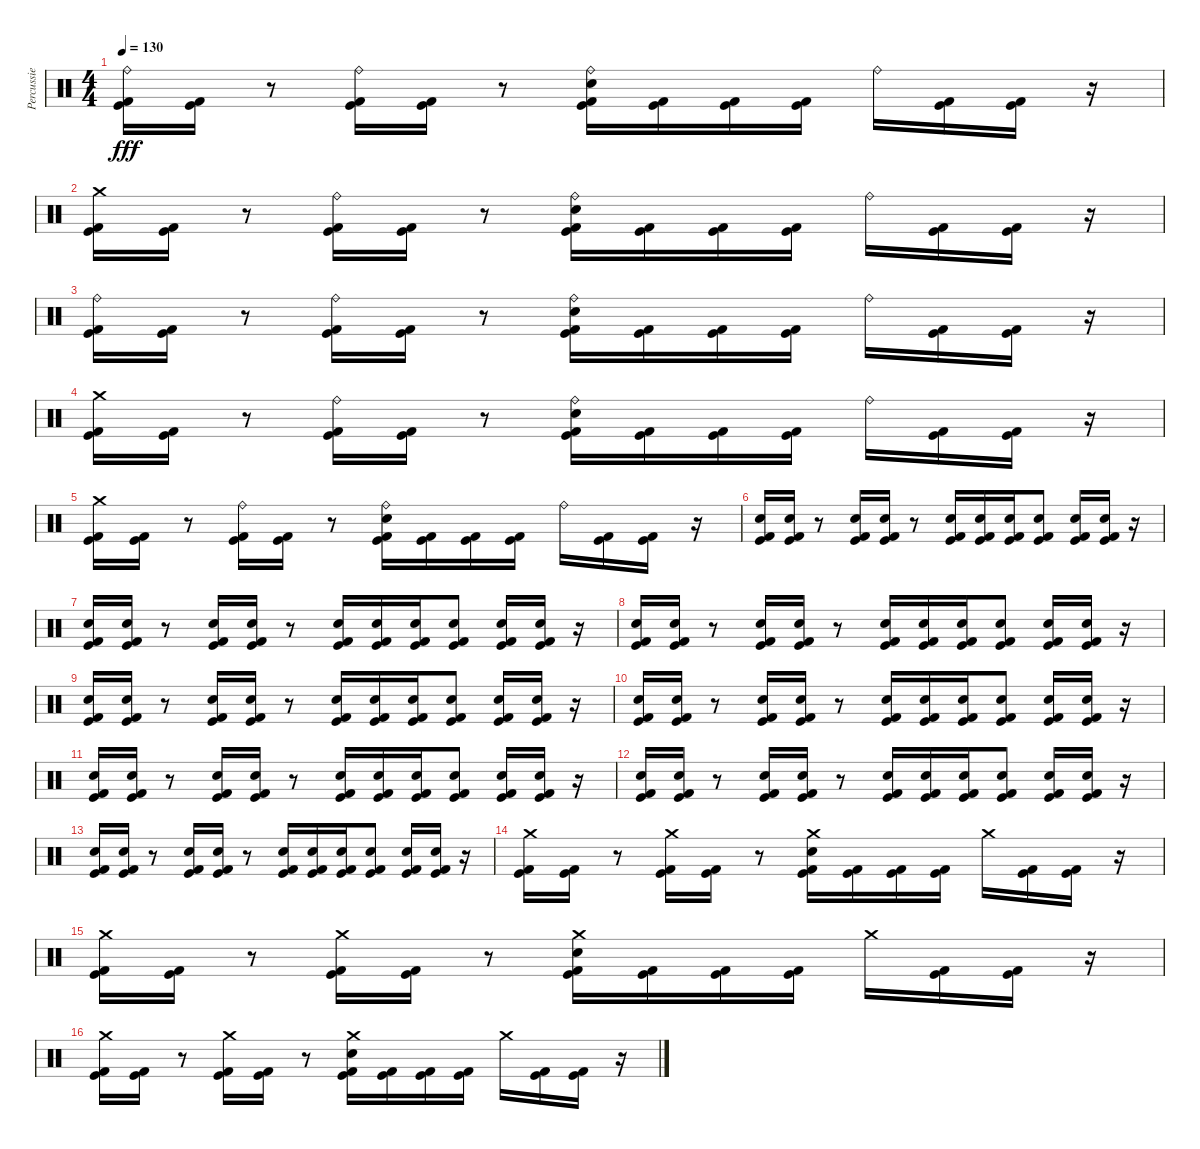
\track ("Percussie" "Percussie") {instrument percussion}
\staff {score}
\articulation defaults
\ts (4 4)
\tempo 130
\clef neutral
\ks c
("Ride (bell)" "Kick (hit)" "Kick (hit) 2").16{dy fff} ("Kick (hit)" "Kick (hit) 2").16 r.8 ("Ride (bell)" "Kick (hit)" "Kick (hit) 2").16 ("Kick (hit)" "Kick (hit) 2").16 r.8 ("Ride (bell)" "Electric Snare (hit)" "Kick (hit)" "Kick (hit) 2").16 ("Kick (hit)" "Kick (hit) 2").16 ("Kick (hit)" "Kick (hit) 2").16 ("Kick (hit)" "Kick (hit) 2").16 "Ride (bell)".16 ("Kick (hit)" "Kick (hit) 2").16 ("Kick (hit)" "Kick (hit) 2").16 r.16 |
("Crash medium (hit)" "Kick (hit)" "Kick (hit) 2").16 ("Kick (hit)" "Kick (hit) 2").16 r.8 ("Ride (bell)" "Kick (hit)" "Kick (hit) 2").16 ("Kick (hit)" "Kick (hit) 2").16 r.8 ("Ride (bell)" "Electric Snare (hit)" "Kick (hit)" "Kick (hit) 2").16 ("Kick (hit)" "Kick (hit) 2").16 ("Kick (hit)" "Kick (hit) 2").16 ("Kick (hit)" "Kick (hit) 2").16 "Ride (bell)".16 ("Kick (hit)" "Kick (hit) 2").16 ("Kick (hit)" "Kick (hit) 2").16 r.16 |
("Ride (bell)" "Kick (hit)" "Kick (hit) 2").16 ("Kick (hit)" "Kick (hit) 2").16 r.8 ("Ride (bell)" "Kick (hit)" "Kick (hit) 2").16 ("Kick (hit)" "Kick (hit) 2").16 r.8 ("Ride (bell)" "Electric Snare (hit)" "Kick (hit)" "Kick (hit) 2").16 ("Kick (hit)" "Kick (hit) 2").16 ("Kick (hit)" "Kick (hit) 2").16 ("Kick (hit)" "Kick (hit) 2").16 "Ride (bell)".16 ("Kick (hit)" "Kick (hit) 2").16 ("Kick (hit)" "Kick (hit) 2").16 r.16 |
("Crash medium (hit)" "Kick (hit)" "Kick (hit) 2").16 ("Kick (hit)" "Kick (hit) 2").16 r.8 ("Ride (bell)" "Kick (hit)" "Kick (hit) 2").16 ("Kick (hit)" "Kick (hit) 2").16 r.8 ("Ride (bell)" "Electric Snare (hit)" "Kick (hit)" "Kick (hit) 2").16 ("Kick (hit)" "Kick (hit) 2").16 ("Kick (hit)" "Kick (hit) 2").16 ("Kick (hit)" "Kick (hit) 2").16 "Ride (bell)".16 ("Kick (hit)" "Kick (hit) 2").16 ("Kick (hit)" "Kick (hit) 2").16 r.16 |
("Crash medium (hit)" "Kick (hit)" "Kick (hit) 2").16 ("Kick (hit)" "Kick (hit) 2").16 r.8 ("Ride (bell)" "Kick (hit)" "Kick (hit) 2").16 ("Kick (hit)" "Kick (hit) 2").16 r.8 ("Ride (bell)" "Electric Snare (hit)" "Kick (hit)" "Kick (hit) 2").16 ("Kick (hit)" "Kick (hit) 2").16 ("Kick (hit)" "Kick (hit) 2").16 ("Kick (hit)" "Kick (hit) 2").16 "Ride (bell)".16 ("Kick (hit)" "Kick (hit) 2").16 ("Kick (hit)" "Kick (hit) 2").16 r.16 |
("Electric Snare (hit)" "Kick (hit)" "Kick (hit) 2").16 ("Electric Snare (hit)" "Kick (hit)" "Kick (hit) 2").16 r.8 ("Electric Snare (hit)" "Kick (hit)" "Kick (hit) 2").16 ("Electric Snare (hit)" "Kick (hit)" "Kick (hit) 2").16 r.8 ("Electric Snare (hit)" "Kick (hit)" "Kick (hit) 2").16 ("Electric Snare (hit)" "Kick (hit)" "Kick (hit) 2").16 ("Electric Snare (hit)" "Kick (hit)" "Kick (hit) 2").16 ("Electric Snare (hit)" "Kick (hit)" "Kick (hit) 2").8 ("Electric Snare (hit)" "Kick (hit)" "Kick (hit) 2").16 ("Electric Snare (hit)" "Kick (hit)" "Kick (hit) 2").16 r.16 |
("Electric Snare (hit)" "Kick (hit)" "Kick (hit) 2").16 ("Electric Snare (hit)" "Kick (hit)" "Kick (hit) 2").16 r.8 ("Electric Snare (hit)" "Kick (hit)" "Kick (hit) 2").16 ("Electric Snare (hit)" "Kick (hit)" "Kick (hit) 2").16 r.8 ("Electric Snare (hit)" "Kick (hit)" "Kick (hit) 2").16 ("Electric Snare (hit)" "Kick (hit)" "Kick (hit) 2").16 ("Electric Snare (hit)" "Kick (hit)" "Kick (hit) 2").16 ("Electric Snare (hit)" "Kick (hit)" "Kick (hit) 2").8 ("Electric Snare (hit)" "Kick (hit)" "Kick (hit) 2").16 ("Electric Snare (hit)" "Kick (hit)" "Kick (hit) 2").16 r.16 |
("Electric Snare (hit)" "Kick (hit)" "Kick (hit) 2").16 ("Electric Snare (hit)" "Kick (hit)" "Kick (hit) 2").16 r.8 ("Electric Snare (hit)" "Kick (hit)" "Kick (hit) 2").16 ("Electric Snare (hit)" "Kick (hit)" "Kick (hit) 2").16 r.8 ("Electric Snare (hit)" "Kick (hit)" "Kick (hit) 2").16 ("Electric Snare (hit)" "Kick (hit)" "Kick (hit) 2").16 ("Electric Snare (hit)" "Kick (hit)" "Kick (hit) 2").16 ("Electric Snare (hit)" "Kick (hit)" "Kick (hit) 2").8 ("Electric Snare (hit)" "Kick (hit)" "Kick (hit) 2").16 ("Electric Snare (hit)" "Kick (hit)" "Kick (hit) 2").16 r.16 |
("Electric Snare (hit)" "Kick (hit)" "Kick (hit) 2").16 ("Electric Snare (hit)" "Kick (hit)" "Kick (hit) 2").16 r.8 ("Electric Snare (hit)" "Kick (hit)" "Kick (hit) 2").16 ("Electric Snare (hit)" "Kick (hit)" "Kick (hit) 2").16 r.8 ("Electric Snare (hit)" "Kick (hit)" "Kick (hit) 2").16 ("Electric Snare (hit)" "Kick (hit)" "Kick (hit) 2").16 ("Electric Snare (hit)" "Kick (hit)" "Kick (hit) 2").16 ("Electric Snare (hit)" "Kick (hit)" "Kick (hit) 2").8 ("Electric Snare (hit)" "Kick (hit)" "Kick (hit) 2").16 ("Electric Snare (hit)" "Kick (hit)" "Kick (hit) 2").16 r.16 |
("Electric Snare (hit)" "Kick (hit)" "Kick (hit) 2").16 ("Electric Snare (hit)" "Kick (hit)" "Kick (hit) 2").16 r.8 ("Electric Snare (hit)" "Kick (hit)" "Kick (hit) 2").16 ("Electric Snare (hit)" "Kick (hit)" "Kick (hit) 2").16 r.8 ("Electric Snare (hit)" "Kick (hit)" "Kick (hit) 2").16 ("Electric Snare (hit)" "Kick (hit)" "Kick (hit) 2").16 ("Electric Snare (hit)" "Kick (hit)" "Kick (hit) 2").16 ("Electric Snare (hit)" "Kick (hit)" "Kick (hit) 2").8 ("Electric Snare (hit)" "Kick (hit)" "Kick (hit) 2").16 ("Electric Snare (hit)" "Kick (hit)" "Kick (hit) 2").16 r.16 |
("Electric Snare (hit)" "Kick (hit)" "Kick (hit) 2").16 ("Electric Snare (hit)" "Kick (hit)" "Kick (hit) 2").16 r.8 ("Electric Snare (hit)" "Kick (hit)" "Kick (hit) 2").16 ("Electric Snare (hit)" "Kick (hit)" "Kick (hit) 2").16 r.8 ("Electric Snare (hit)" "Kick (hit)" "Kick (hit) 2").16 ("Electric Snare (hit)" "Kick (hit)" "Kick (hit) 2").16 ("Electric Snare (hit)" "Kick (hit)" "Kick (hit) 2").16 ("Electric Snare (hit)" "Kick (hit)" "Kick (hit) 2").8 ("Electric Snare (hit)" "Kick (hit)" "Kick (hit) 2").16 ("Electric Snare (hit)" "Kick (hit)" "Kick (hit) 2").16 r.16 |
("Electric Snare (hit)" "Kick (hit)" "Kick (hit) 2").16 ("Electric Snare (hit)" "Kick (hit)" "Kick (hit) 2").16 r.8 ("Electric Snare (hit)" "Kick (hit)" "Kick (hit) 2").16 ("Electric Snare (hit)" "Kick (hit)" "Kick (hit) 2").16 r.8 ("Electric Snare (hit)" "Kick (hit)" "Kick (hit) 2").16 ("Electric Snare (hit)" "Kick (hit)" "Kick (hit) 2").16 ("Electric Snare (hit)" "Kick (hit)" "Kick (hit) 2").16 ("Electric Snare (hit)" "Kick (hit)" "Kick (hit) 2").8 ("Electric Snare (hit)" "Kick (hit)" "Kick (hit) 2").16 ("Electric Snare (hit)" "Kick (hit)" "Kick (hit) 2").16 r.16 |
("Electric Snare (hit)" "Kick (hit)" "Kick (hit) 2").16 ("Electric Snare (hit)" "Kick (hit)" "Kick (hit) 2").16 r.8 ("Electric Snare (hit)" "Kick (hit)" "Kick (hit) 2").16 ("Electric Snare (hit)" "Kick (hit)" "Kick (hit) 2").16 r.8 ("Electric Snare (hit)" "Kick (hit)" "Kick (hit) 2").16 ("Electric Snare (hit)" "Kick (hit)" "Kick (hit) 2").16 ("Electric Snare (hit)" "Kick (hit)" "Kick (hit) 2").16 ("Electric Snare (hit)" "Kick (hit)" "Kick (hit) 2").8 ("Electric Snare (hit)" "Kick (hit)" "Kick (hit) 2").16 ("Electric Snare (hit)" "Kick (hit)" "Kick (hit) 2").16 r.16 |
("Crash medium (hit)" "Kick (hit)" "Kick (hit) 2").16 ("Kick (hit)" "Kick (hit) 2").16 r.8 ("Crash medium (hit)" "Kick (hit)" "Kick (hit) 2").16 ("Kick (hit)" "Kick (hit) 2").16 r.8 ("Crash medium (hit)" "Electric Snare (hit)" "Kick (hit)" "Kick (hit) 2").16 ("Kick (hit)" "Kick (hit) 2").16 ("Kick (hit)" "Kick (hit) 2").16 ("Kick (hit)" "Kick (hit) 2").16 "Crash medium (hit)".16 ("Kick (hit)" "Kick (hit) 2").16 ("Kick (hit)" "Kick (hit) 2").16 r.16 |
("Crash medium (hit)" "Kick (hit)" "Kick (hit) 2").16 ("Kick (hit)" "Kick (hit) 2").16 r.8 ("Crash medium (hit)" "Kick (hit)" "Kick (hit) 2").16 ("Kick (hit)" "Kick (hit) 2").16 r.8 ("Crash medium (hit)" "Electric Snare (hit)" "Kick (hit)" "Kick (hit) 2").16 ("Kick (hit)" "Kick (hit) 2").16 ("Kick (hit)" "Kick (hit) 2").16 ("Kick (hit)" "Kick (hit) 2").16 "Crash medium (hit)".16 ("Kick (hit)" "Kick (hit) 2").16 ("Kick (hit)" "Kick (hit) 2").16 r.16 |
("Crash medium (hit)" "Kick (hit)" "Kick (hit) 2").16 ("Kick (hit)" "Kick (hit) 2").16 r.8 ("Crash medium (hit)" "Kick (hit)" "Kick (hit) 2").16 ("Kick (hit)" "Kick (hit) 2").16 r.8 ("Crash medium (hit)" "Electric Snare (hit)" "Kick (hit)" "Kick (hit) 2").16 ("Kick (hit)" "Kick (hit) 2").16 ("Kick (hit)" "Kick (hit) 2").16 ("Kick (hit)" "Kick (hit) 2").16 "Crash medium (hit)".16 ("Kick (hit)" "Kick (hit) 2").16 ("Kick (hit)" "Kick (hit) 2").16 r.16
